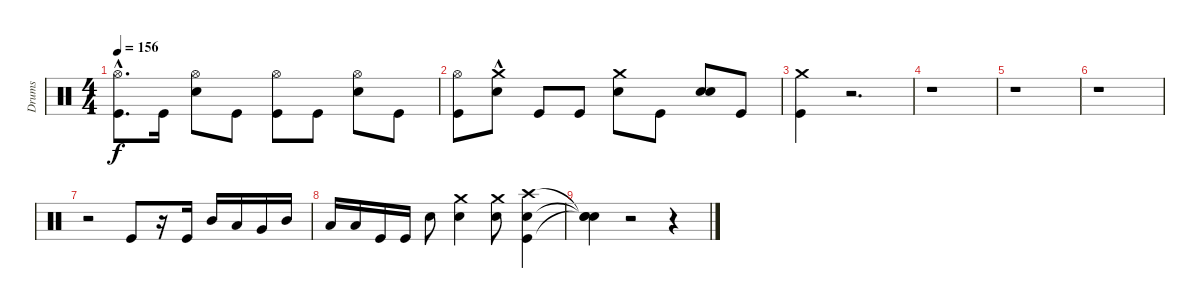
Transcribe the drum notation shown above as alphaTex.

\track ("Drums" "Drums") {instrument percussion}
\staff {score}
\articulation defaults
\ts (4 4)
\tempo 156
\clef neutral
\ks c
("Kick (hit)"{hac} "Hi-Hat (open)").8{d dy f} "Kick (hit)".16 ("Electric Snare (hit)" "Hi-Hat (open)").8 "Kick (hit)".8 ("Kick (hit)" "Hi-Hat (open)").8 "Kick (hit)".8 ("Electric Snare (hit)" "Hi-Hat (open)").8 "Kick (hit)".8 |
("Kick (hit)" "Hi-Hat (open)").8 ("Electric Snare (hit)" "Crash medium (hit)"{hac}).8 "Kick (hit)".8 "Kick (hit)".8 ("Electric Snare (hit)" "Crash medium (hit)").8 "Kick (hit)".8 ("Electric Snare (hit)" "Electric Snare (hit)").8 "Kick (hit)".8 |
("Kick (hit)" "Crash medium (hit)").4 r.2{d} |
r.1 |
r.1 |
r.1 |
r.2 "Kick (hit)".8 r.16 "Kick (hit)".16 "Mid Tom (hit)".16 "Low Tom (hit)".16 "Very Low Tom (hit)".16 "Mid Tom (hit)".16 |
"Low Tom (hit)".16 "Low Tom (hit)".16 "Kick (hit)".16 "Kick (hit)".16 "Electric Snare (hit)".8 ("Electric Snare (hit)" "Crash medium (hit)").4 ("Electric Snare (hit)" "Crash medium (hit)").8 ("Kick (hit)" "Electric Snare (hit)" "Crash high (hit)").4 |
("Snare (hit)"{t} "Snare (hit)"{t} "Snare (hit)"{t}).4 r.2 r.4
